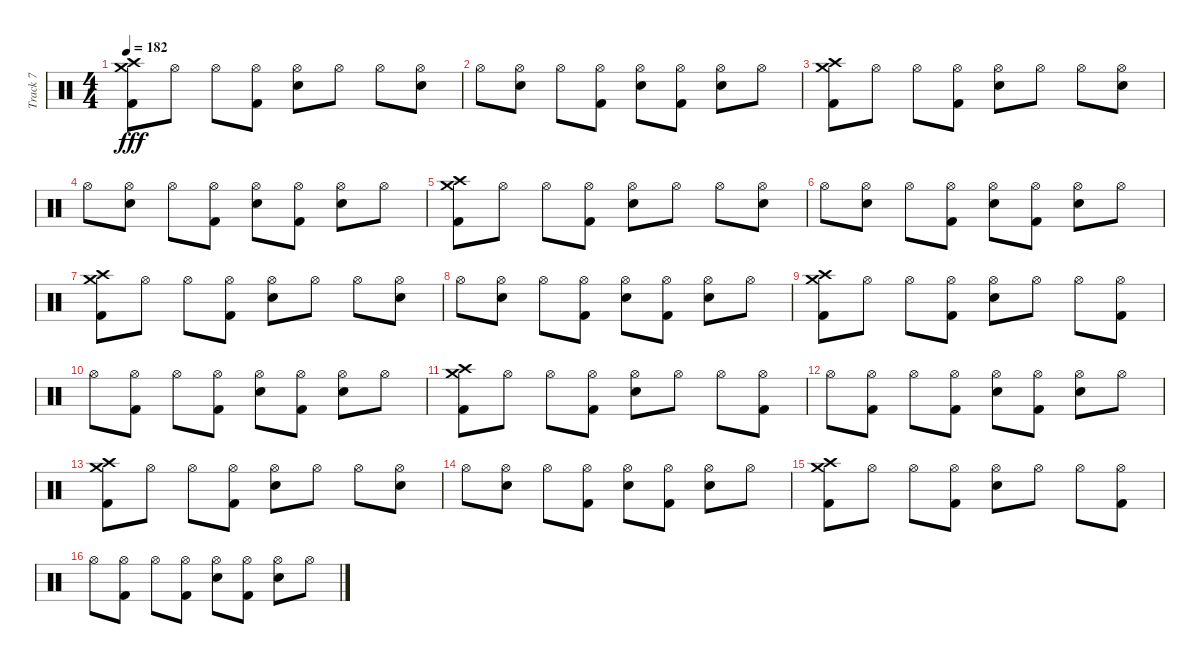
\track ("Track 7" "Track 7") {instrument percussion}
\staff {score}
\articulation defaults
\ts (4 4)
\tempo 182
\clef neutral
\ks c
("Kick (hit) 2" "Crash medium (hit)" "Crash high (hit)").8{dy fff} "Hi-Hat (open)".8 "Hi-Hat (open)".8 ("Kick (hit) 2" "Hi-Hat (open)").8 ("Electric Snare (hit)" "Hi-Hat (open)").8 "Hi-Hat (open)".8 "Hi-Hat (open)".8 ("Electric Snare (hit)" "Hi-Hat (open)").8 |
"Hi-Hat (open)".8 ("Electric Snare (hit)" "Hi-Hat (open)").8 "Hi-Hat (open)".8 ("Kick (hit) 2" "Hi-Hat (open)").8 ("Electric Snare (hit)" "Hi-Hat (open)").8 ("Kick (hit) 2" "Hi-Hat (open)").8 ("Electric Snare (hit)" "Hi-Hat (open)").8 "Hi-Hat (open)".8 |
("Kick (hit) 2" "Crash medium (hit)" "Crash high (hit)").8 "Hi-Hat (open)".8 "Hi-Hat (open)".8 ("Kick (hit) 2" "Hi-Hat (open)").8 ("Electric Snare (hit)" "Hi-Hat (open)").8 "Hi-Hat (open)".8 "Hi-Hat (open)".8 ("Electric Snare (hit)" "Hi-Hat (open)").8 |
"Hi-Hat (open)".8 ("Electric Snare (hit)" "Hi-Hat (open)").8 "Hi-Hat (open)".8 ("Kick (hit) 2" "Hi-Hat (open)").8 ("Electric Snare (hit)" "Hi-Hat (open)").8 ("Kick (hit) 2" "Hi-Hat (open)").8 ("Electric Snare (hit)" "Hi-Hat (open)").8 "Hi-Hat (open)".8 |
("Kick (hit) 2" "Crash medium (hit)" "Crash high (hit)").8 "Hi-Hat (open)".8 "Hi-Hat (open)".8 ("Kick (hit) 2" "Hi-Hat (open)").8 ("Electric Snare (hit)" "Hi-Hat (open)").8 "Hi-Hat (open)".8 "Hi-Hat (open)".8 ("Electric Snare (hit)" "Hi-Hat (open)").8 |
"Hi-Hat (open)".8 ("Electric Snare (hit)" "Hi-Hat (open)").8 "Hi-Hat (open)".8 ("Kick (hit) 2" "Hi-Hat (open)").8 ("Electric Snare (hit)" "Hi-Hat (open)").8 ("Kick (hit) 2" "Hi-Hat (open)").8 ("Electric Snare (hit)" "Hi-Hat (open)").8 "Hi-Hat (open)".8 |
("Kick (hit) 2" "Crash medium (hit)" "Crash high (hit)").8 "Hi-Hat (open)".8 "Hi-Hat (open)".8 ("Kick (hit) 2" "Hi-Hat (open)").8 ("Electric Snare (hit)" "Hi-Hat (open)").8 "Hi-Hat (open)".8 "Hi-Hat (open)".8 ("Electric Snare (hit)" "Hi-Hat (open)").8 |
"Hi-Hat (open)".8 ("Electric Snare (hit)" "Hi-Hat (open)").8 "Hi-Hat (open)".8 ("Kick (hit) 2" "Hi-Hat (open)").8 ("Electric Snare (hit)" "Hi-Hat (open)").8 ("Kick (hit) 2" "Hi-Hat (open)").8 ("Electric Snare (hit)" "Hi-Hat (open)").8 "Hi-Hat (open)".8 |
("Kick (hit) 2" "Crash medium (hit)" "Crash high (hit)").8 "Hi-Hat (open)".8 "Hi-Hat (open)".8 ("Kick (hit) 2" "Hi-Hat (open)").8 ("Electric Snare (hit)" "Hi-Hat (open)").8 "Hi-Hat (open)".8 "Hi-Hat (open)".8 ("Kick (hit) 2" "Hi-Hat (open)").8 |
"Hi-Hat (open)".8 ("Kick (hit) 2" "Hi-Hat (open)").8 "Hi-Hat (open)".8 ("Kick (hit) 2" "Hi-Hat (open)").8 ("Electric Snare (hit)" "Hi-Hat (open)").8 ("Kick (hit) 2" "Hi-Hat (open)").8 ("Electric Snare (hit)" "Hi-Hat (open)").8 "Hi-Hat (open)".8 |
("Kick (hit) 2" "Crash medium (hit)" "Crash high (hit)").8 "Hi-Hat (open)".8 "Hi-Hat (open)".8 ("Kick (hit) 2" "Hi-Hat (open)").8 ("Electric Snare (hit)" "Hi-Hat (open)").8 "Hi-Hat (open)".8 "Hi-Hat (open)".8 ("Kick (hit) 2" "Hi-Hat (open)").8 |
"Hi-Hat (open)".8 ("Kick (hit) 2" "Hi-Hat (open)").8 "Hi-Hat (open)".8 ("Kick (hit) 2" "Hi-Hat (open)").8 ("Electric Snare (hit)" "Hi-Hat (open)").8 ("Kick (hit) 2" "Hi-Hat (open)").8 ("Electric Snare (hit)" "Hi-Hat (open)").8 "Hi-Hat (open)".8 |
("Kick (hit) 2" "Crash medium (hit)" "Crash high (hit)").8 "Hi-Hat (open)".8 "Hi-Hat (open)".8 ("Kick (hit) 2" "Hi-Hat (open)").8 ("Electric Snare (hit)" "Hi-Hat (open)").8 "Hi-Hat (open)".8 "Hi-Hat (open)".8 ("Electric Snare (hit)" "Hi-Hat (open)").8 |
"Hi-Hat (open)".8 ("Electric Snare (hit)" "Hi-Hat (open)").8 "Hi-Hat (open)".8 ("Kick (hit) 2" "Hi-Hat (open)").8 ("Electric Snare (hit)" "Hi-Hat (open)").8 ("Kick (hit) 2" "Hi-Hat (open)").8 ("Electric Snare (hit)" "Hi-Hat (open)").8 "Hi-Hat (open)".8 |
("Kick (hit) 2" "Crash medium (hit)" "Crash high (hit)").8 "Hi-Hat (open)".8 "Hi-Hat (open)".8 ("Kick (hit) 2" "Hi-Hat (open)").8 ("Electric Snare (hit)" "Hi-Hat (open)").8 "Hi-Hat (open)".8 "Hi-Hat (open)".8 ("Kick (hit) 2" "Hi-Hat (open)").8 |
"Hi-Hat (open)".8 ("Kick (hit) 2" "Hi-Hat (open)").8 "Hi-Hat (open)".8 ("Kick (hit) 2" "Hi-Hat (open)").8 ("Electric Snare (hit)" "Hi-Hat (open)").8 ("Kick (hit) 2" "Hi-Hat (open)").8 ("Electric Snare (hit)" "Hi-Hat (open)").8 "Hi-Hat (open)".8
